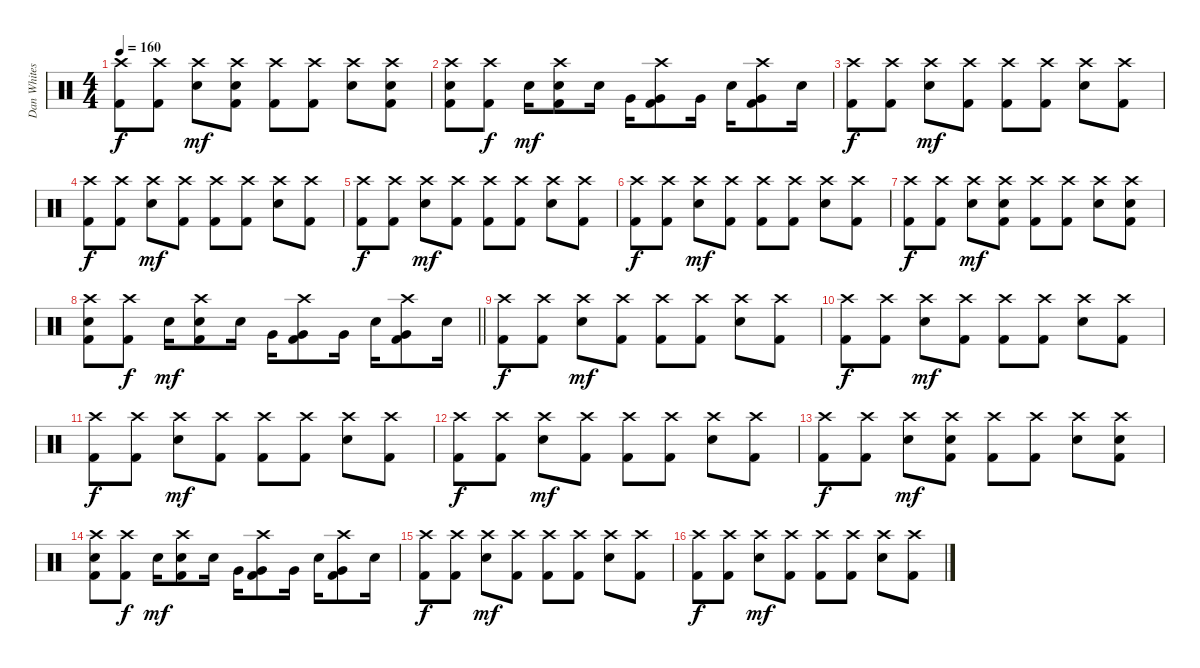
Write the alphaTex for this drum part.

\track ("Dan Whitesides" "Dan Whites") {instrument percussion}
\staff {score}
\articulation defaults
\ts (4 4)
\tempo 160
\clef neutral
\ks c
("Crash high (hit)" "Kick (hit) 2").8{dy f} ("Crash high (hit)" "Kick (hit) 2").8 ("Crash high (hit)" "Snare (hit) 2").8{dy mf} ("Crash high (hit)" "Snare (hit) 2" "Kick (hit) 2").8 ("Crash high (hit)" "Kick (hit) 2").8 ("Crash high (hit)" "Kick (hit) 2").8 ("Crash high (hit)" "Snare (hit) 2").8 ("Crash high (hit)" "Snare (hit) 2" "Kick (hit) 2").8 |
("Crash high (hit)" "Snare (hit) 2" "Kick (hit) 2").8 ("Crash high (hit)" "Kick (hit) 2").8{dy f} "Snare (hit) 2".16{dy mf} ("Crash high (hit)" "Snare (hit) 2" "Kick (hit) 2").8 "Snare (hit) 2".16 "Very Low Tom (hit)".16 ("Crash high (hit)" "Very Low Tom (hit)" "Kick (hit) 2").8 "Very Low Tom (hit)".16 "Snare (hit) 2".16 ("Crash high (hit)" "Very Low Tom (hit)" "Kick (hit) 2").8 "Snare (hit) 2".16 |
("Crash high (hit)" "Kick (hit) 2").8{dy f} ("Crash high (hit)" "Kick (hit) 2").8 ("Crash high (hit)" "Snare (hit) 2").8{dy mf} ("Crash high (hit)" "Kick (hit) 2").8 ("Crash high (hit)" "Kick (hit) 2").8 ("Crash high (hit)" "Kick (hit) 2").8 ("Crash high (hit)" "Snare (hit) 2").8 ("Crash high (hit)" "Kick (hit) 2").8 |
("Crash high (hit)" "Kick (hit) 2").8{dy f} ("Crash high (hit)" "Kick (hit) 2").8 ("Crash high (hit)" "Snare (hit) 2").8{dy mf} ("Crash high (hit)" "Kick (hit) 2").8 ("Crash high (hit)" "Kick (hit) 2").8 ("Crash high (hit)" "Kick (hit) 2").8 ("Crash high (hit)" "Snare (hit) 2").8 ("Crash high (hit)" "Kick (hit) 2").8 |
("Crash high (hit)" "Kick (hit) 2").8{dy f} ("Crash high (hit)" "Kick (hit) 2").8 ("Crash high (hit)" "Snare (hit) 2").8{dy mf} ("Crash high (hit)" "Kick (hit) 2").8 ("Crash high (hit)" "Kick (hit) 2").8 ("Crash high (hit)" "Kick (hit) 2").8 ("Crash high (hit)" "Snare (hit) 2").8 ("Crash high (hit)" "Kick (hit) 2").8 |
("Crash high (hit)" "Kick (hit) 2").8{dy f} ("Crash high (hit)" "Kick (hit) 2").8 ("Crash high (hit)" "Snare (hit) 2").8{dy mf} ("Crash high (hit)" "Kick (hit) 2").8 ("Crash high (hit)" "Kick (hit) 2").8 ("Crash high (hit)" "Kick (hit) 2").8 ("Crash high (hit)" "Snare (hit) 2").8 ("Crash high (hit)" "Kick (hit) 2").8 |
("Crash high (hit)" "Kick (hit) 2").8{dy f} ("Crash high (hit)" "Kick (hit) 2").8 ("Crash high (hit)" "Snare (hit) 2").8{dy mf} ("Crash high (hit)" "Snare (hit) 2" "Kick (hit) 2").8 ("Crash high (hit)" "Kick (hit) 2").8 ("Crash high (hit)" "Kick (hit) 2").8 ("Crash high (hit)" "Snare (hit) 2").8 ("Crash high (hit)" "Snare (hit) 2" "Kick (hit) 2").8 |
\barLineRight lightlight
("Crash high (hit)" "Snare (hit) 2" "Kick (hit) 2").8 ("Crash high (hit)" "Kick (hit) 2").8{dy f} "Snare (hit) 2".16{dy mf} ("Crash high (hit)" "Snare (hit) 2" "Kick (hit) 2").8 "Snare (hit) 2".16 "Very Low Tom (hit)".16 ("Crash high (hit)" "Very Low Tom (hit)" "Kick (hit) 2").8 "Very Low Tom (hit)".16 "Snare (hit) 2".16 ("Crash high (hit)" "Very Low Tom (hit)" "Kick (hit) 2").8 "Snare (hit) 2".16 |
("Crash high (hit)" "Kick (hit) 2").8{dy f} ("Crash high (hit)" "Kick (hit) 2").8 ("Crash high (hit)" "Snare (hit) 2").8{dy mf} ("Crash high (hit)" "Kick (hit) 2").8 ("Crash high (hit)" "Kick (hit) 2").8 ("Crash high (hit)" "Kick (hit) 2").8 ("Crash high (hit)" "Snare (hit) 2").8 ("Crash high (hit)" "Kick (hit) 2").8 |
("Crash high (hit)" "Kick (hit) 2").8{dy f} ("Crash high (hit)" "Kick (hit) 2").8 ("Crash high (hit)" "Snare (hit) 2").8{dy mf} ("Crash high (hit)" "Kick (hit) 2").8 ("Crash high (hit)" "Kick (hit) 2").8 ("Crash high (hit)" "Kick (hit) 2").8 ("Crash high (hit)" "Snare (hit) 2").8 ("Crash high (hit)" "Kick (hit) 2").8 |
("Crash high (hit)" "Kick (hit) 2").8{dy f} ("Crash high (hit)" "Kick (hit) 2").8 ("Crash high (hit)" "Snare (hit) 2").8{dy mf} ("Crash high (hit)" "Kick (hit) 2").8 ("Crash high (hit)" "Kick (hit) 2").8 ("Crash high (hit)" "Kick (hit) 2").8 ("Crash high (hit)" "Snare (hit) 2").8 ("Crash high (hit)" "Kick (hit) 2").8 |
("Crash high (hit)" "Kick (hit) 2").8{dy f} ("Crash high (hit)" "Kick (hit) 2").8 ("Crash high (hit)" "Snare (hit) 2").8{dy mf} ("Crash high (hit)" "Kick (hit) 2").8 ("Crash high (hit)" "Kick (hit) 2").8 ("Crash high (hit)" "Kick (hit) 2").8 ("Crash high (hit)" "Snare (hit) 2").8 ("Crash high (hit)" "Kick (hit) 2").8 |
("Crash high (hit)" "Kick (hit) 2").8{dy f} ("Crash high (hit)" "Kick (hit) 2").8 ("Crash high (hit)" "Snare (hit) 2").8{dy mf} ("Crash high (hit)" "Snare (hit) 2" "Kick (hit) 2").8 ("Crash high (hit)" "Kick (hit) 2").8 ("Crash high (hit)" "Kick (hit) 2").8 ("Crash high (hit)" "Snare (hit) 2").8 ("Crash high (hit)" "Snare (hit) 2" "Kick (hit) 2").8 |
("Crash high (hit)" "Snare (hit) 2" "Kick (hit) 2").8 ("Crash high (hit)" "Kick (hit) 2").8{dy f} "Snare (hit) 2".16{dy mf} ("Crash high (hit)" "Snare (hit) 2" "Kick (hit) 2").8 "Snare (hit) 2".16 "Very Low Tom (hit)".16 ("Crash high (hit)" "Very Low Tom (hit)" "Kick (hit) 2").8 "Very Low Tom (hit)".16 "Snare (hit) 2".16 ("Crash high (hit)" "Very Low Tom (hit)" "Kick (hit) 2").8 "Snare (hit) 2".16 |
("Crash high (hit)" "Kick (hit) 2").8{dy f} ("Crash high (hit)" "Kick (hit) 2").8 ("Crash high (hit)" "Snare (hit) 2").8{dy mf} ("Crash high (hit)" "Kick (hit) 2").8 ("Crash high (hit)" "Kick (hit) 2").8 ("Crash high (hit)" "Kick (hit) 2").8 ("Crash high (hit)" "Snare (hit) 2").8 ("Crash high (hit)" "Kick (hit) 2").8 |
("Crash high (hit)" "Kick (hit) 2").8{dy f} ("Crash high (hit)" "Kick (hit) 2").8 ("Crash high (hit)" "Snare (hit) 2").8{dy mf} ("Crash high (hit)" "Kick (hit) 2").8 ("Crash high (hit)" "Kick (hit) 2").8 ("Crash high (hit)" "Kick (hit) 2").8 ("Crash high (hit)" "Snare (hit) 2").8 ("Crash high (hit)" "Kick (hit) 2").8
